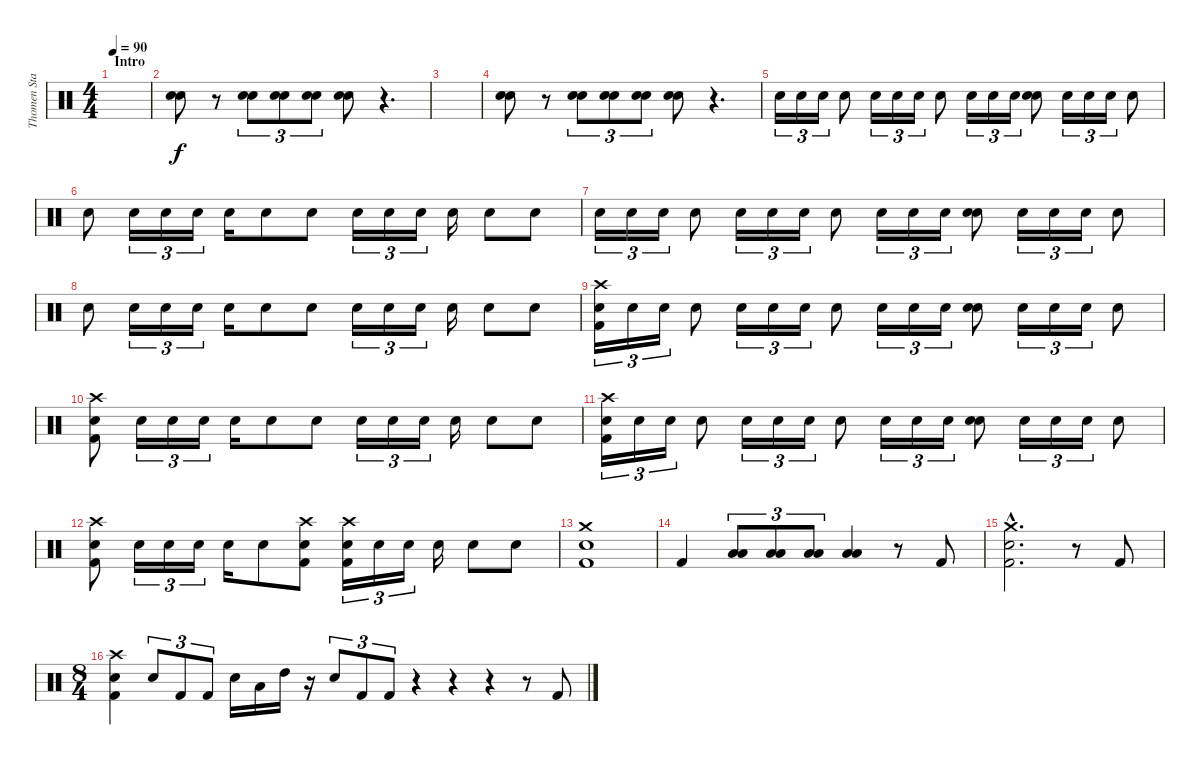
\track ("Thomen Stauch" "Thomen Sta") {instrument percussion}
\staff {score}
\articulation defaults
\ts (4 4)
\section ("" "Intro")
\tempo 90
\clef neutral
\ks c
|
("Snare (hit) 2" "Snare (hit) 2").8 r.8 ("Snare (hit) 2" "Snare (hit) 2").8{tu (3 2)} ("Snare (hit) 2" "Snare (hit) 2").8{tu (3 2)} ("Snare (hit) 2" "Snare (hit) 2").8{tu (3 2)} ("Snare (hit) 2" "Snare (hit) 2").8 r.4{d} |
|
("Snare (hit) 2" "Snare (hit) 2").8 r.8 ("Snare (hit) 2" "Snare (hit) 2").8{tu (3 2)} ("Snare (hit) 2" "Snare (hit) 2").8{tu (3 2)} ("Snare (hit) 2" "Snare (hit) 2").8{tu (3 2)} ("Snare (hit) 2" "Snare (hit) 2").8 r.4{d} |
"Snare (hit) 2".16{tu (3 2)} "Snare (hit) 2".16{tu (3 2)} "Snare (hit) 2".16{tu (3 2)} "Snare (hit) 2".8 "Snare (hit) 2".16{tu (3 2)} "Snare (hit) 2".16{tu (3 2)} "Snare (hit) 2".16{tu (3 2)} "Snare (hit) 2".8 "Snare (hit) 2".16{tu (3 2)} "Snare (hit) 2".16{tu (3 2)} "Snare (hit) 2".16{tu (3 2)} ("Snare (hit) 2" "Snare (hit) 2").8 "Snare (hit) 2".16{tu (3 2)} "Snare (hit) 2".16{tu (3 2)} "Snare (hit) 2".16{tu (3 2)} "Snare (hit) 2".8 |
"Snare (hit) 2".8 "Snare (hit) 2".16{tu (3 2)} "Snare (hit) 2".16{tu (3 2)} "Snare (hit) 2".16{tu (3 2)} "Snare (hit) 2".16 "Snare (hit) 2".8 "Snare (hit) 2".8 "Snare (hit) 2".16{tu (3 2)} "Snare (hit) 2".16{tu (3 2)} "Snare (hit) 2".16{tu (3 2)} "Snare (hit) 2".16 "Snare (hit) 2".8 "Snare (hit) 2".8 |
"Snare (hit) 2".16{tu (3 2)} "Snare (hit) 2".16{tu (3 2)} "Snare (hit) 2".16{tu (3 2)} "Snare (hit) 2".8 "Snare (hit) 2".16{tu (3 2)} "Snare (hit) 2".16{tu (3 2)} "Snare (hit) 2".16{tu (3 2)} "Snare (hit) 2".8 "Snare (hit) 2".16{tu (3 2)} "Snare (hit) 2".16{tu (3 2)} "Snare (hit) 2".16{tu (3 2)} ("Snare (hit) 2" "Snare (hit) 2").8 "Snare (hit) 2".16{tu (3 2)} "Snare (hit) 2".16{tu (3 2)} "Snare (hit) 2".16{tu (3 2)} "Snare (hit) 2".8 |
"Snare (hit) 2".8 "Snare (hit) 2".16{tu (3 2)} "Snare (hit) 2".16{tu (3 2)} "Snare (hit) 2".16{tu (3 2)} "Snare (hit) 2".16 "Snare (hit) 2".8 "Snare (hit) 2".8 "Snare (hit) 2".16{tu (3 2)} "Snare (hit) 2".16{tu (3 2)} "Snare (hit) 2".16{tu (3 2)} "Snare (hit) 2".16 "Snare (hit) 2".8 "Snare (hit) 2".8 |
("Kick (hit) 2" "Snare (hit) 2" "Crash high (hit)").16{tu (3 2)} "Snare (hit) 2".16{tu (3 2)} "Snare (hit) 2".16{tu (3 2)} "Snare (hit) 2".8 "Snare (hit) 2".16{tu (3 2)} "Snare (hit) 2".16{tu (3 2)} "Snare (hit) 2".16{tu (3 2)} "Snare (hit) 2".8 "Snare (hit) 2".16{tu (3 2)} "Snare (hit) 2".16{tu (3 2)} "Snare (hit) 2".16{tu (3 2)} ("Snare (hit) 2" "Snare (hit) 2").8 "Snare (hit) 2".16{tu (3 2)} "Snare (hit) 2".16{tu (3 2)} "Snare (hit) 2".16{tu (3 2)} "Snare (hit) 2".8 |
("Kick (hit) 2" "Snare (hit) 2" "Crash high (hit)").8 "Snare (hit) 2".16{tu (3 2)} "Snare (hit) 2".16{tu (3 2)} "Snare (hit) 2".16{tu (3 2)} "Snare (hit) 2".16 "Snare (hit) 2".8 "Snare (hit) 2".8 "Snare (hit) 2".16{tu (3 2)} "Snare (hit) 2".16{tu (3 2)} "Snare (hit) 2".16{tu (3 2)} "Snare (hit) 2".16 "Snare (hit) 2".8 "Snare (hit) 2".8 |
("Kick (hit) 2" "Snare (hit) 2" "Crash high (hit)").16{tu (3 2)} "Snare (hit) 2".16{tu (3 2)} "Snare (hit) 2".16{tu (3 2)} "Snare (hit) 2".8 "Snare (hit) 2".16{tu (3 2)} "Snare (hit) 2".16{tu (3 2)} "Snare (hit) 2".16{tu (3 2)} "Snare (hit) 2".8 "Snare (hit) 2".16{tu (3 2)} "Snare (hit) 2".16{tu (3 2)} "Snare (hit) 2".16{tu (3 2)} ("Snare (hit) 2" "Snare (hit) 2").8 "Snare (hit) 2".16{tu (3 2)} "Snare (hit) 2".16{tu (3 2)} "Snare (hit) 2".16{tu (3 2)} "Snare (hit) 2".8 |
("Kick (hit) 2" "Snare (hit) 2" "Crash high (hit)").8 "Snare (hit) 2".16{tu (3 2)} "Snare (hit) 2".16{tu (3 2)} "Snare (hit) 2".16{tu (3 2)} "Snare (hit) 2".16 "Snare (hit) 2".8 ("Kick (hit) 2" "Snare (hit) 2" "Crash high (hit)").8 ("Kick (hit) 2" "Snare (hit) 2" "Crash high (hit)").16{tu (3 2)} "Snare (hit) 2".16{tu (3 2)} "Snare (hit) 2".16{tu (3 2)} "Snare (hit) 2".16 "Snare (hit) 2".8 "Snare (hit) 2".8 |
("Kick (hit) 2" "Snare (hit) 2" "Crash medium (hit)").1 |
"Kick (hit) 2".4 ("Low Floor Tom (hit)" "Low Floor Tom (hit)").8{tu (3 2)} ("Low Floor Tom (hit)" "Low Floor Tom (hit)").8{tu (3 2)} ("Low Floor Tom (hit)" "Low Floor Tom (hit)").8{tu (3 2)} ("Low Floor Tom (hit)" "Low Floor Tom (hit)").4 r.8 "Kick (hit) 2".8 |
("Kick (hit) 2"{hac} "Snare (hit) 2"{hac} "Crash medium (hit)"{hac}).2{d} r.8 "Kick (hit) 2".8 |
\ts (8 4)
("Kick (hit) 2" "Snare (hit) 2" "Crash high (hit)").4 "Snare (hit) 2".8{tu (3 2)} "Kick (hit) 2".8{tu (3 2)} "Kick (hit) 2".8{tu (3 2)} "Snare (hit) 2".16 "Low Tom (hit)".16 "High Tom (hit)".16 r.16 "Snare (hit) 2".8{tu (3 2)} "Kick (hit) 2".8{tu (3 2)} "Kick (hit) 2".8{tu (3 2)} r.4 r.4 r.4 r.8 "Kick (hit) 2".8
